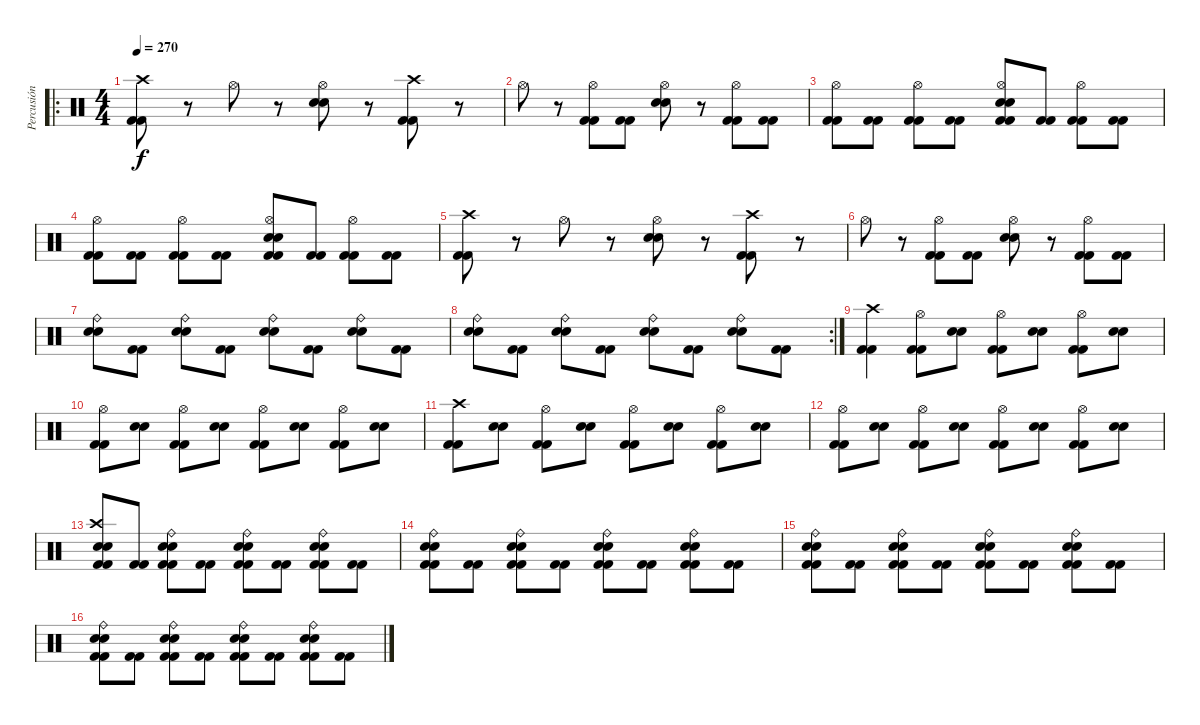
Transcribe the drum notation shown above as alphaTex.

\track ("Percusión" "Percusión") {instrument percussion}
\staff {score}
\articulation defaults
\ro
\ts (4 4)
\tempo 270
\clef neutral
\ks c
("Kick (hit) 2" "Kick (hit) 2" "Crash high (hit)").8{dy f} r.8 "Hi-Hat (open)".8 r.8 ("Electric Snare (hit)" "Electric Snare (hit)" "Hi-Hat (open)").8 r.8 ("Kick (hit) 2" "Kick (hit) 2" "Crash high (hit)").8 r.8 |
"Hi-Hat (open)".8 r.8 ("Kick (hit) 2" "Kick (hit) 2" "Hi-Hat (open)").8 ("Kick (hit) 2" "Kick (hit) 2").8 ("Electric Snare (hit)" "Electric Snare (hit)" "Hi-Hat (open)").8 r.8 ("Kick (hit) 2" "Kick (hit) 2" "Hi-Hat (open)").8 ("Kick (hit) 2" "Kick (hit) 2").8 |
("Kick (hit) 2" "Kick (hit) 2" "Hi-Hat (open)").8 ("Kick (hit) 2" "Kick (hit) 2").8 ("Kick (hit) 2" "Kick (hit) 2" "Hi-Hat (open)").8 ("Kick (hit) 2" "Kick (hit) 2").8 ("Kick (hit) 2" "Kick (hit) 2" "Electric Snare (hit)" "Electric Snare (hit)" "Hi-Hat (open)").8 ("Kick (hit) 2" "Kick (hit) 2").8 ("Kick (hit) 2" "Kick (hit) 2" "Hi-Hat (open)").8 ("Kick (hit) 2" "Kick (hit) 2").8 |
("Kick (hit) 2" "Kick (hit) 2" "Hi-Hat (open)").8 ("Kick (hit) 2" "Kick (hit) 2").8 ("Kick (hit) 2" "Kick (hit) 2" "Hi-Hat (open)").8 ("Kick (hit) 2" "Kick (hit) 2").8 ("Kick (hit) 2" "Kick (hit) 2" "Electric Snare (hit)" "Electric Snare (hit)" "Hi-Hat (open)").8 ("Kick (hit) 2" "Kick (hit) 2").8 ("Kick (hit) 2" "Kick (hit) 2" "Hi-Hat (open)").8 ("Kick (hit) 2" "Kick (hit) 2").8 |
("Kick (hit) 2" "Kick (hit) 2" "Crash high (hit)").8 r.8 "Hi-Hat (open)".8 r.8 ("Electric Snare (hit)" "Electric Snare (hit)" "Hi-Hat (open)").8 r.8 ("Kick (hit) 2" "Kick (hit) 2" "Crash high (hit)").8 r.8 |
"Hi-Hat (open)".8 r.8 ("Kick (hit) 2" "Kick (hit) 2" "Hi-Hat (open)").8 ("Kick (hit) 2" "Kick (hit) 2").8 ("Electric Snare (hit)" "Electric Snare (hit)" "Hi-Hat (open)").8 r.8 ("Kick (hit) 2" "Kick (hit) 2" "Hi-Hat (open)").8 ("Kick (hit) 2" "Kick (hit) 2").8 |
("Electric Snare (hit)" "Electric Snare (hit)" "Ride (bell)").8 ("Kick (hit) 2" "Kick (hit) 2").8 ("Electric Snare (hit)" "Electric Snare (hit)" "Ride (bell)").8 ("Kick (hit) 2" "Kick (hit) 2").8 ("Electric Snare (hit)" "Electric Snare (hit)" "Ride (bell)").8 ("Kick (hit) 2" "Kick (hit) 2").8 ("Electric Snare (hit)" "Electric Snare (hit)" "Ride (bell)").8 ("Kick (hit) 2" "Kick (hit) 2").8 |
\rc 2
("Electric Snare (hit)" "Electric Snare (hit)" "Ride (bell)").8 ("Kick (hit) 2" "Kick (hit) 2").8 ("Electric Snare (hit)" "Electric Snare (hit)" "Ride (bell)").8 ("Kick (hit) 2" "Kick (hit) 2").8 ("Electric Snare (hit)" "Electric Snare (hit)" "Ride (bell)").8 ("Kick (hit) 2" "Kick (hit) 2").8 ("Electric Snare (hit)" "Electric Snare (hit)" "Ride (bell)").8 ("Kick (hit) 2" "Kick (hit) 2").8 |
("Kick (hit) 2" "Kick (hit) 2" "Crash high (hit)").4 ("Kick (hit) 2" "Kick (hit) 2" "Hi-Hat (open)").8 ("Electric Snare (hit)" "Electric Snare (hit)").8 ("Kick (hit) 2" "Kick (hit) 2" "Hi-Hat (open)").8 ("Electric Snare (hit)" "Electric Snare (hit)").8 ("Kick (hit) 2" "Kick (hit) 2" "Hi-Hat (open)").8 ("Electric Snare (hit)" "Electric Snare (hit)").8 |
("Kick (hit) 2" "Kick (hit) 2" "Hi-Hat (open)").8 ("Electric Snare (hit)" "Electric Snare (hit)").8 ("Kick (hit) 2" "Kick (hit) 2" "Hi-Hat (open)").8 ("Electric Snare (hit)" "Electric Snare (hit)").8 ("Kick (hit) 2" "Kick (hit) 2" "Hi-Hat (open)").8 ("Electric Snare (hit)" "Electric Snare (hit)").8 ("Kick (hit) 2" "Kick (hit) 2" "Hi-Hat (open)").8 ("Electric Snare (hit)" "Electric Snare (hit)").8 |
("Kick (hit) 2" "Kick (hit) 2" "Crash high (hit)").8 ("Electric Snare (hit)" "Electric Snare (hit)").8 ("Kick (hit) 2" "Kick (hit) 2" "Hi-Hat (open)").8 ("Electric Snare (hit)" "Electric Snare (hit)").8 ("Kick (hit) 2" "Kick (hit) 2" "Hi-Hat (open)").8 ("Electric Snare (hit)" "Electric Snare (hit)").8 ("Kick (hit) 2" "Kick (hit) 2" "Hi-Hat (open)").8 ("Electric Snare (hit)" "Electric Snare (hit)").8 |
("Kick (hit) 2" "Kick (hit) 2" "Hi-Hat (open)").8 ("Electric Snare (hit)" "Electric Snare (hit)").8 ("Kick (hit) 2" "Kick (hit) 2" "Hi-Hat (open)").8 ("Electric Snare (hit)" "Electric Snare (hit)").8 ("Kick (hit) 2" "Kick (hit) 2" "Hi-Hat (open)").8 ("Electric Snare (hit)" "Electric Snare (hit)").8 ("Kick (hit) 2" "Kick (hit) 2" "Hi-Hat (open)").8 ("Electric Snare (hit)" "Electric Snare (hit)").8 |
("Kick (hit) 2" "Kick (hit) 2" "Electric Snare (hit)" "Electric Snare (hit)" "Crash high (hit)").8 ("Kick (hit) 2" "Kick (hit) 2").8 ("Kick (hit) 2" "Kick (hit) 2" "Electric Snare (hit)" "Electric Snare (hit)" "Ride (bell)").8 ("Kick (hit) 2" "Kick (hit) 2").8 ("Kick (hit) 2" "Kick (hit) 2" "Electric Snare (hit)" "Electric Snare (hit)" "Ride (bell)").8 ("Kick (hit) 2" "Kick (hit) 2").8 ("Kick (hit) 2" "Kick (hit) 2" "Electric Snare (hit)" "Electric Snare (hit)" "Ride (bell)").8 ("Kick (hit) 2" "Kick (hit) 2").8 |
("Kick (hit) 2" "Kick (hit) 2" "Electric Snare (hit)" "Electric Snare (hit)" "Ride (bell)").8 ("Kick (hit) 2" "Kick (hit) 2").8 ("Kick (hit) 2" "Kick (hit) 2" "Electric Snare (hit)" "Electric Snare (hit)" "Ride (bell)").8 ("Kick (hit) 2" "Kick (hit) 2").8 ("Kick (hit) 2" "Kick (hit) 2" "Electric Snare (hit)" "Electric Snare (hit)" "Ride (bell)").8 ("Kick (hit) 2" "Kick (hit) 2").8 ("Kick (hit) 2" "Kick (hit) 2" "Electric Snare (hit)" "Electric Snare (hit)" "Ride (bell)").8 ("Kick (hit) 2" "Kick (hit) 2").8 |
("Kick (hit) 2" "Kick (hit) 2" "Electric Snare (hit)" "Electric Snare (hit)" "Ride (bell)").8 ("Kick (hit) 2" "Kick (hit) 2").8 ("Kick (hit) 2" "Kick (hit) 2" "Electric Snare (hit)" "Electric Snare (hit)" "Ride (bell)").8 ("Kick (hit) 2" "Kick (hit) 2").8 ("Kick (hit) 2" "Kick (hit) 2" "Electric Snare (hit)" "Electric Snare (hit)" "Ride (bell)").8 ("Kick (hit) 2" "Kick (hit) 2").8 ("Kick (hit) 2" "Kick (hit) 2" "Electric Snare (hit)" "Electric Snare (hit)" "Ride (bell)").8 ("Kick (hit) 2" "Kick (hit) 2").8 |
("Kick (hit) 2" "Kick (hit) 2" "Electric Snare (hit)" "Electric Snare (hit)" "Ride (bell)").8 ("Kick (hit) 2" "Kick (hit) 2").8 ("Kick (hit) 2" "Kick (hit) 2" "Electric Snare (hit)" "Electric Snare (hit)" "Ride (bell)").8 ("Kick (hit) 2" "Kick (hit) 2").8 ("Kick (hit) 2" "Kick (hit) 2" "Electric Snare (hit)" "Electric Snare (hit)" "Ride (bell)").8 ("Kick (hit) 2" "Kick (hit) 2").8 ("Kick (hit) 2" "Kick (hit) 2" "Electric Snare (hit)" "Electric Snare (hit)" "Ride (bell)").8 ("Kick (hit) 2" "Kick (hit) 2").8
